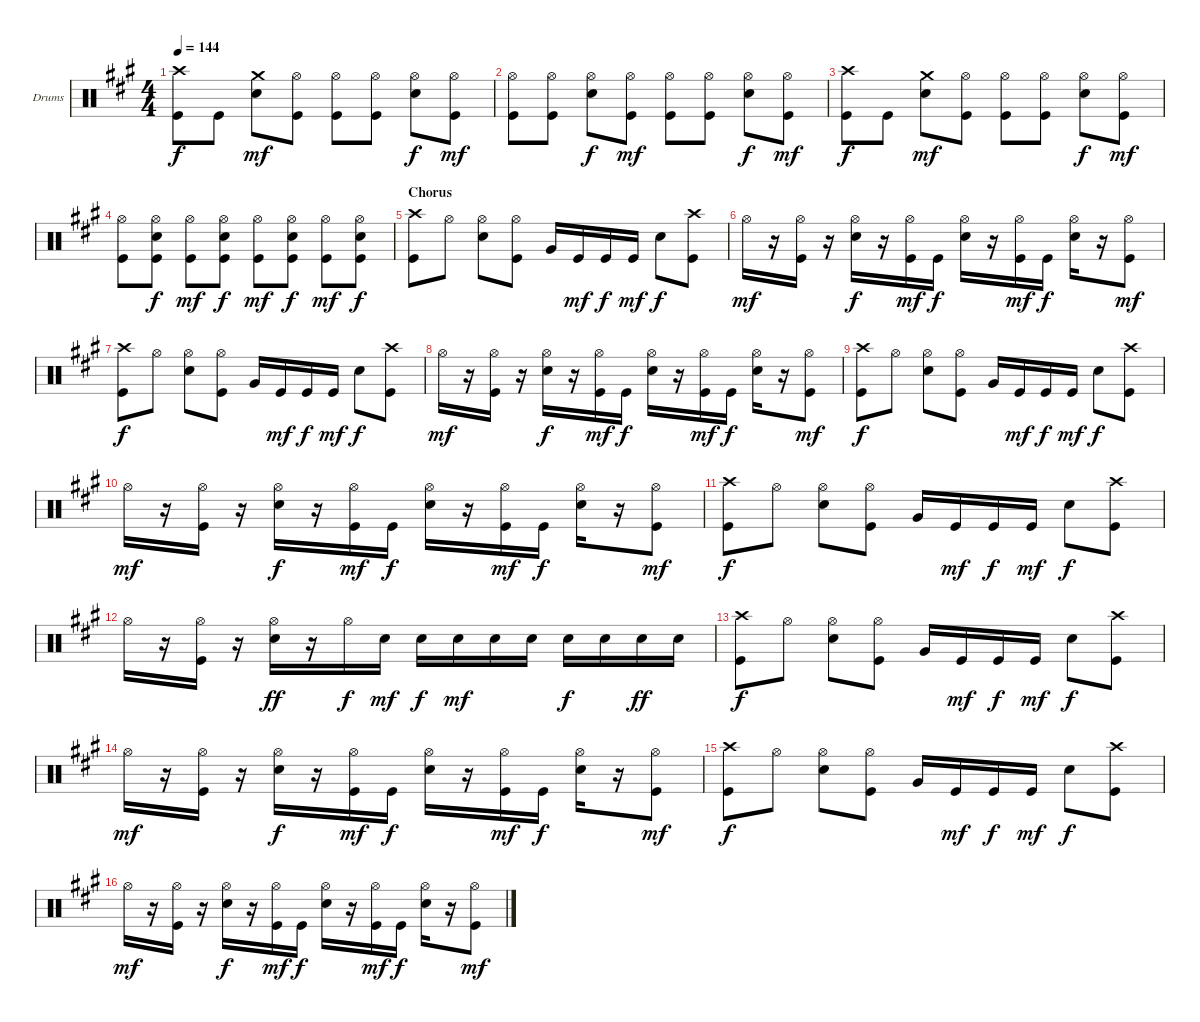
\defaultSystemsLayout 4
\bracketExtendMode groupsimilarinstruments
\firstSystemTrackNameOrientation horizontal
\otherSystemsTrackNameOrientation horizontal
\track ("Drumkit" "Drums") {instrument percussion}
\staff {score}
\articulation defaults
\ts (4 4)
\tempo 144
\clef neutral
\scale
1.05801
\ks a
("Crash high (hit)" "Kick (hit)").8{dy f} "Kick (hit)".8 ("Crash medium (hit)" "Snare (hit) 2").8{dy mf} ("Hi-Hat (open)" "Kick (hit)").8 ("Hi-Hat (open)" "Kick (hit)").8 ("Hi-Hat (open)" "Kick (hit)").8 ("Hi-Hat (open)" "Snare (hit) 2").8{dy f} ("Hi-Hat (open)" "Kick (hit)").8{dy mf} |
\scale
0.941992 ("Hi-Hat (open)" "Kick (hit)").8 ("Hi-Hat (open)" "Kick (hit)").8 ("Hi-Hat (open)" "Snare (hit) 2").8{dy f} ("Hi-Hat (open)" "Kick (hit)").8{dy mf} ("Hi-Hat (open)" "Kick (hit)").8 ("Hi-Hat (open)" "Kick (hit)").8 ("Hi-Hat (open)" "Snare (hit) 2").8{dy f} ("Hi-Hat (open)" "Kick (hit)").8{dy mf} |
\scale
1.05801 ("Crash high (hit)" "Kick (hit)").8{dy f} "Kick (hit)".8 ("Crash medium (hit)" "Snare (hit) 2").8{dy mf} ("Hi-Hat (open)" "Kick (hit)").8 ("Hi-Hat (open)" "Kick (hit)").8 ("Hi-Hat (open)" "Kick (hit)").8 ("Hi-Hat (open)" "Snare (hit) 2").8{dy f} ("Hi-Hat (open)" "Kick (hit)").8{dy mf} |
\scale
0.941992 ("Hi-Hat (open)" "Kick (hit)").8 ("Hi-Hat (open)" "Snare (hit) 2" "Kick (hit)").8{dy f} ("Hi-Hat (open)" "Kick (hit)").8{dy mf} ("Hi-Hat (open)" "Snare (hit) 2" "Kick (hit)").8{dy f} ("Hi-Hat (open)" "Kick (hit)").8{dy mf} ("Hi-Hat (open)" "Snare (hit) 2" "Kick (hit)").8{dy f} ("Hi-Hat (open)" "Kick (hit)").8{dy mf} ("Hi-Hat (open)" "Snare (hit) 2" "Kick (hit)").8{dy f} |
\section ("" "Chorus")
\scale
1.05801 ("Crash high (hit)" "Kick (hit)").8 "Hi-Hat (open)".8 ("Hi-Hat (open)" "Snare (hit) 2").8 ("Hi-Hat (open)" "Kick (hit)").8 "Very Low Tom (hit)".16 "Kick (hit)".16{dy mf} "Kick (hit)".16{dy f} "Kick (hit)".16{dy mf} "Snare (hit) 2".8{dy f} ("Crash high (hit)" "Kick (hit)").8 |
\scale
0.941992 "Hi-Hat (open)".16{dy mf} r.16 ("Hi-Hat (open)" "Kick (hit)").16 r.16 ("Hi-Hat (open)" "Snare (hit) 2").16{dy f} r.16 ("Hi-Hat (open)" "Kick (hit)").16{dy mf} "Kick (hit)".16{dy f} ("Hi-Hat (open)" "Snare (hit) 2").16 r.16 ("Hi-Hat (open)" "Kick (hit)").16{dy mf} "Kick (hit)".16{dy f} ("Hi-Hat (open)" "Snare (hit) 2").16 r.16 ("Hi-Hat (open)" "Kick (hit)").8{dy mf} |
\scale
1.05801 ("Crash high (hit)" "Kick (hit)").8{dy f} "Hi-Hat (open)".8 ("Hi-Hat (open)" "Snare (hit) 2").8 ("Hi-Hat (open)" "Kick (hit)").8 "Very Low Tom (hit)".16 "Kick (hit)".16{dy mf} "Kick (hit)".16{dy f} "Kick (hit)".16{dy mf} "Snare (hit) 2".8{dy f} ("Crash high (hit)" "Kick (hit)").8 |
\scale
0.941992 "Hi-Hat (open)".16{dy mf} r.16 ("Hi-Hat (open)" "Kick (hit)").16 r.16 ("Hi-Hat (open)" "Snare (hit) 2").16{dy f} r.16 ("Hi-Hat (open)" "Kick (hit)").16{dy mf} "Kick (hit)".16{dy f} ("Hi-Hat (open)" "Snare (hit) 2").16 r.16 ("Hi-Hat (open)" "Kick (hit)").16{dy mf} "Kick (hit)".16{dy f} ("Hi-Hat (open)" "Snare (hit) 2").16 r.16 ("Hi-Hat (open)" "Kick (hit)").8{dy mf} |
\scale
1.05801 ("Crash high (hit)" "Kick (hit)").8{dy f} "Hi-Hat (open)".8 ("Hi-Hat (open)" "Snare (hit) 2").8 ("Hi-Hat (open)" "Kick (hit)").8 "Very Low Tom (hit)".16 "Kick (hit)".16{dy mf} "Kick (hit)".16{dy f} "Kick (hit)".16{dy mf} "Snare (hit) 2".8{dy f} ("Crash high (hit)" "Kick (hit)").8 |
\scale
0.941992 "Hi-Hat (open)".16{dy mf} r.16 ("Hi-Hat (open)" "Kick (hit)").16 r.16 ("Hi-Hat (open)" "Snare (hit) 2").16{dy f} r.16 ("Hi-Hat (open)" "Kick (hit)").16{dy mf} "Kick (hit)".16{dy f} ("Hi-Hat (open)" "Snare (hit) 2").16 r.16 ("Hi-Hat (open)" "Kick (hit)").16{dy mf} "Kick (hit)".16{dy f} ("Hi-Hat (open)" "Snare (hit) 2").16 r.16 ("Hi-Hat (open)" "Kick (hit)").8{dy mf} |
\scale
1.05801 ("Crash high (hit)" "Kick (hit)").8{dy f} "Hi-Hat (open)".8 ("Hi-Hat (open)" "Snare (hit) 2").8 ("Hi-Hat (open)" "Kick (hit)").8 "Very Low Tom (hit)".16 "Kick (hit)".16{dy mf} "Kick (hit)".16{dy f} "Kick (hit)".16{dy mf} "Snare (hit) 2".8{dy f} ("Crash high (hit)" "Kick (hit)").8 |
\scale
0.941992 "Hi-Hat (open)".16 r.16 ("Hi-Hat (open)" "Kick (hit)").16 r.16 ("Hi-Hat (open)" "Snare (hit) 2").16{dy ff} r.16 "Hi-Hat (open)".16{dy f} "Snare (hit) 2".16{dy mf} "Snare (hit) 2".16{dy f} "Snare (hit) 2".16{dy mf} "Snare (hit) 2".16 "Snare (hit) 2".16 "Snare (hit) 2".16{dy f} "Snare (hit) 2".16 "Snare (hit) 2".16{dy ff} "Snare (hit) 2".16 |
\scale
1.05801 ("Crash high (hit)" "Kick (hit)").8{dy f} "Hi-Hat (open)".8 ("Hi-Hat (open)" "Snare (hit) 2").8 ("Hi-Hat (open)" "Kick (hit)").8 "Very Low Tom (hit)".16 "Kick (hit)".16{dy mf} "Kick (hit)".16{dy f} "Kick (hit)".16{dy mf} "Snare (hit) 2".8{dy f} ("Crash high (hit)" "Kick (hit)").8 |
\scale
0.941992 "Hi-Hat (open)".16{dy mf} r.16 ("Hi-Hat (open)" "Kick (hit)").16 r.16 ("Hi-Hat (open)" "Snare (hit) 2").16{dy f} r.16 ("Hi-Hat (open)" "Kick (hit)").16{dy mf} "Kick (hit)".16{dy f} ("Hi-Hat (open)" "Snare (hit) 2").16 r.16 ("Hi-Hat (open)" "Kick (hit)").16{dy mf} "Kick (hit)".16{dy f} ("Hi-Hat (open)" "Snare (hit) 2").16 r.16 ("Hi-Hat (open)" "Kick (hit)").8{dy mf} |
\scale
1.05801 ("Crash high (hit)" "Kick (hit)").8{dy f} "Hi-Hat (open)".8 ("Hi-Hat (open)" "Snare (hit) 2").8 ("Hi-Hat (open)" "Kick (hit)").8 "Very Low Tom (hit)".16 "Kick (hit)".16{dy mf} "Kick (hit)".16{dy f} "Kick (hit)".16{dy mf} "Snare (hit) 2".8{dy f} ("Crash high (hit)" "Kick (hit)").8 |
\scale
0.941992 "Hi-Hat (open)".16{dy mf} r.16 ("Hi-Hat (open)" "Kick (hit)").16 r.16 ("Hi-Hat (open)" "Snare (hit) 2").16{dy f} r.16 ("Hi-Hat (open)" "Kick (hit)").16{dy mf} "Kick (hit)".16{dy f} ("Hi-Hat (open)" "Snare (hit) 2").16 r.16 ("Hi-Hat (open)" "Kick (hit)").16{dy mf} "Kick (hit)".16{dy f} ("Hi-Hat (open)" "Snare (hit) 2").16 r.16 ("Hi-Hat (open)" "Kick (hit)").8{dy mf}
